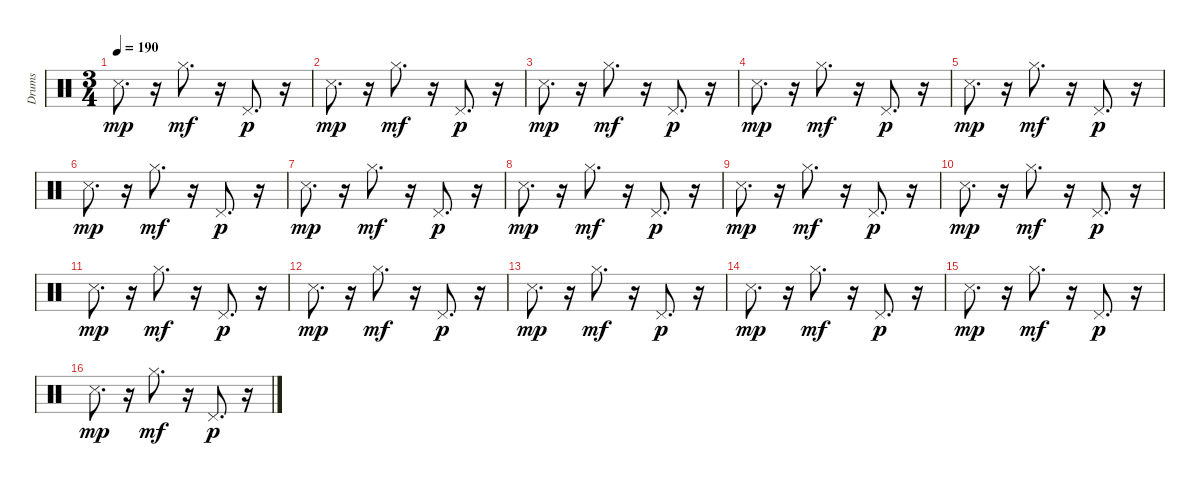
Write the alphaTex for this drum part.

\track ("Drums" "Drums") {instrument percussion}
\staff {score}
\articulation defaults
\ts (3 4)
\tempo 190
\clef neutral
\ks c "Metronome (hit)".8{d dy mp}
r.16 "Hi-Hat (closed)".8{d dy mf} r.16 "Pedal Hi-Hat (hit)".8{d dy p} r.16 |
"Metronome (hit)".8{d dy mp} r.16 "Hi-Hat (closed)".8{d dy mf} r.16 "Pedal Hi-Hat (hit)".8{d dy p} r.16 |
"Metronome (hit)".8{d dy mp} r.16 "Hi-Hat (closed)".8{d dy mf} r.16 "Pedal Hi-Hat (hit)".8{d dy p} r.16 |
"Metronome (hit)".8{d dy mp} r.16 "Hi-Hat (closed)".8{d dy mf} r.16 "Pedal Hi-Hat (hit)".8{d dy p} r.16 |
"Metronome (hit)".8{d dy mp} r.16 "Hi-Hat (closed)".8{d dy mf} r.16 "Pedal Hi-Hat (hit)".8{d dy p} r.16 |
"Metronome (hit)".8{d dy mp} r.16 "Hi-Hat (closed)".8{d dy mf} r.16 "Pedal Hi-Hat (hit)".8{d dy p} r.16 |
"Metronome (hit)".8{d dy mp} r.16 "Hi-Hat (closed)".8{d dy mf} r.16 "Pedal Hi-Hat (hit)".8{d dy p} r.16 |
"Metronome (hit)".8{d dy mp} r.16 "Hi-Hat (closed)".8{d dy mf} r.16 "Pedal Hi-Hat (hit)".8{d dy p} r.16 |
"Metronome (hit)".8{d dy mp} r.16 "Hi-Hat (closed)".8{d dy mf} r.16 "Pedal Hi-Hat (hit)".8{d dy p} r.16 |
"Metronome (hit)".8{d dy mp} r.16 "Hi-Hat (closed)".8{d dy mf} r.16 "Pedal Hi-Hat (hit)".8{d dy p} r.16 |
"Metronome (hit)".8{d dy mp} r.16 "Hi-Hat (closed)".8{d dy mf} r.16 "Pedal Hi-Hat (hit)".8{d dy p} r.16 |
"Metronome (hit)".8{d dy mp} r.16 "Hi-Hat (closed)".8{d dy mf} r.16 "Pedal Hi-Hat (hit)".8{d dy p} r.16 |
"Metronome (hit)".8{d dy mp} r.16 "Hi-Hat (closed)".8{d dy mf} r.16 "Pedal Hi-Hat (hit)".8{d dy p} r.16 |
"Metronome (hit)".8{d dy mp} r.16 "Hi-Hat (closed)".8{d dy mf} r.16 "Pedal Hi-Hat (hit)".8{d dy p} r.16 |
"Metronome (hit)".8{d dy mp} r.16 "Hi-Hat (closed)".8{d dy mf} r.16 "Pedal Hi-Hat (hit)".8{d dy p} r.16 |
"Metronome (hit)".8{d dy mp} r.16 "Hi-Hat (closed)".8{d dy mf} r.16 "Pedal Hi-Hat (hit)".8{d dy p} r.16
